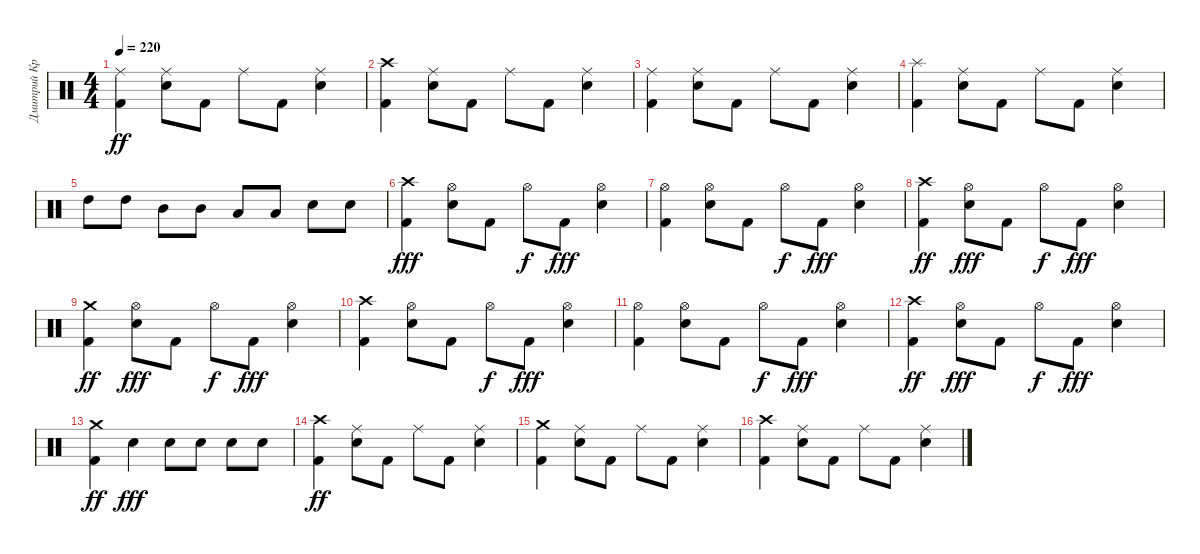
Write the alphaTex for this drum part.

\track ("Дмитрий Кривенков" "Дмитрий Кр") {instrument percussion}
\staff {score}
\articulation defaults
\ts (4 4)
\tempo 220
\clef neutral
\ks c
("Kick (hit) 2" "Ride (middle)").4{dy ff} ("Snare (hit) 2" "Ride (middle)").8 "Kick (hit) 2".8 "Ride (middle)".8 "Kick (hit) 2".8 ("Snare (hit) 2" "Ride (middle)").4 |
("Crash high (hit)" "Kick (hit) 2").4 ("Ride (middle)" "Snare (hit) 2").8 "Kick (hit) 2".8 "Ride (middle)".8 "Kick (hit) 2".8 ("Ride (middle)" "Snare (hit) 2").4 |
("Kick (hit) 2" "Ride (middle)").4 ("Snare (hit) 2" "Ride (middle)").8 "Kick (hit) 2".8 "Ride (middle)".8 "Kick (hit) 2".8 ("Snare (hit) 2" "Ride (middle)").4 |
("Splash (hit)" "Kick (hit) 2").4 ("Ride (middle)" "Snare (hit) 2").8 "Kick (hit) 2".8 "Ride (middle)".8 "Kick (hit) 2".8 ("Ride (middle)" "Snare (hit) 2").4 |
"High Tom (hit)".8 "High Tom (hit)".8 "Mid Tom (hit)".8 "Mid Tom (hit)".8 "Low Tom (hit)".8 "Low Tom (hit)".8 "Snare (hit) 2".8 "Snare (hit) 2".8 |
("Crash high (hit)" "Kick (hit) 2").4{dy fff} ("Hi-Hat (open)" "Snare (hit) 2").8 "Kick (hit) 2".8 "Hi-Hat (open)".8{dy f} "Kick (hit) 2".8{dy fff} ("Hi-Hat (open)" "Snare (hit) 2").4 |
("Hi-Hat (open)" "Kick (hit) 2").4 ("Hi-Hat (open)" "Snare (hit) 2").8 "Kick (hit) 2".8 "Hi-Hat (open)".8{dy f} "Kick (hit) 2".8{dy fff} ("Hi-Hat (open)" "Snare (hit) 2").4 |
("Kick (hit) 2" "Crash high (hit)").4{dy ff} ("Snare (hit) 2" "Hi-Hat (open)").8{dy fff} "Kick (hit) 2".8 "Hi-Hat (open)".8{dy f} "Kick (hit) 2".8{dy fff} ("Snare (hit) 2" "Hi-Hat (open)").4 |
("Kick (hit) 2" "Crash medium (hit)").4{dy ff} ("Snare (hit) 2" "Hi-Hat (open)").8{dy fff} "Kick (hit) 2".8 "Hi-Hat (open)".8{dy f} "Kick (hit) 2".8{dy fff} ("Snare (hit) 2" "Hi-Hat (open)").4 |
("Crash high (hit)" "Kick (hit) 2").4 ("Hi-Hat (open)" "Snare (hit) 2").8 "Kick (hit) 2".8 "Hi-Hat (open)".8{dy f} "Kick (hit) 2".8{dy fff} ("Hi-Hat (open)" "Snare (hit) 2").4 |
("Hi-Hat (open)" "Kick (hit) 2").4 ("Hi-Hat (open)" "Snare (hit) 2").8 "Kick (hit) 2".8 "Hi-Hat (open)".8{dy f} "Kick (hit) 2".8{dy fff} ("Hi-Hat (open)" "Snare (hit) 2").4 |
("Kick (hit) 2" "Crash high (hit)").4{dy ff} ("Snare (hit) 2" "Hi-Hat (open)").8{dy fff} "Kick (hit) 2".8 "Hi-Hat (open)".8{dy f} "Kick (hit) 2".8{dy fff} ("Snare (hit) 2" "Hi-Hat (open)").4 |
("Kick (hit) 2" "Crash medium (hit)").4{dy ff} "Snare (hit) 2".4{dy fff} "Snare (hit) 2".8 "Snare (hit) 2".8 "Snare (hit) 2".8 "Snare (hit) 2".8 |
("Kick (hit) 2" "Crash high (hit)").4{dy ff} ("Ride (middle)" "Snare (hit) 2").8 "Kick (hit) 2".8 "Ride (middle)".8 "Kick (hit) 2".8 ("Ride (middle)" "Snare (hit) 2").4 |
("Crash medium (hit)" "Kick (hit) 2").4 ("Snare (hit) 2" "Ride (middle)").8 "Kick (hit) 2".8 "Ride (middle)".8 "Kick (hit) 2".8 ("Snare (hit) 2" "Ride (middle)").4 |
("Kick (hit) 2" "Crash high (hit)").4 ("Ride (middle)" "Snare (hit) 2").8 "Kick (hit) 2".8 "Ride (middle)".8 "Kick (hit) 2".8 ("Ride (middle)" "Snare (hit) 2").4
